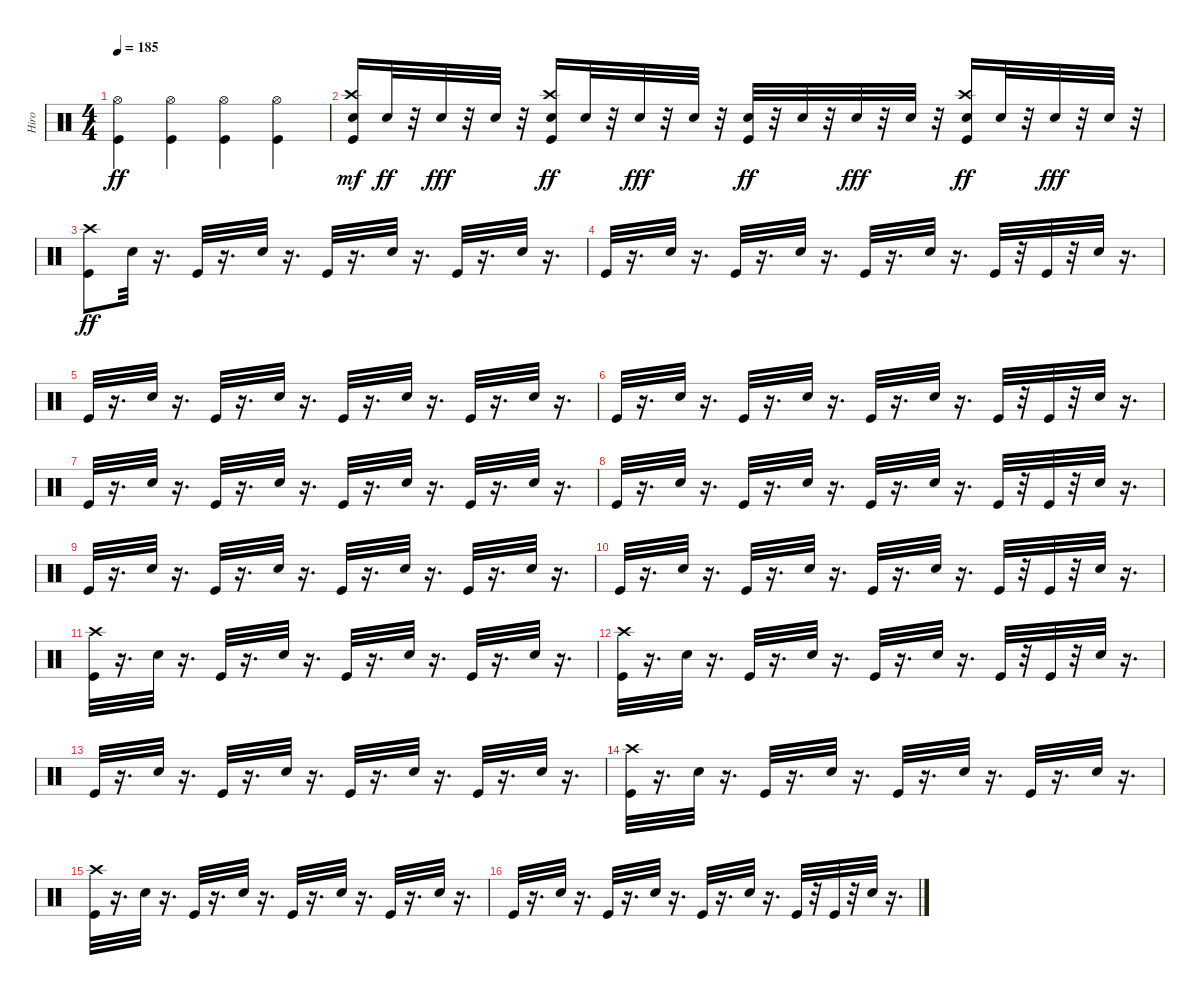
\track ("Hiro" "Hiro") {instrument percussion}
\staff {score}
\articulation defaults
\ts (4 4)
\tempo 185
\clef neutral
\ks c
("Hi-Hat (open)" "Kick (hit)").4{dy ff} ("Hi-Hat (open)" "Kick (hit)").4 ("Hi-Hat (open)" "Kick (hit)").4 ("Hi-Hat (open)" "Kick (hit)").4 |
("Crash high (hit)" "Kick (hit)" "Snare (hit) 2").16{dy mf} "Electric Snare (hit)".32{dy ff} r.32 "Snare (hit) 2".32{dy fff} r.32 "Snare (hit) 2".32 r.32 ("Crash high (hit)" "Electric Snare (hit)" "Kick (hit)").16{dy ff} "Electric Snare (hit)".32 r.32 "Snare (hit) 2".32{dy fff} r.32 "Snare (hit) 2".32 r.32 ("Snare (hit) 2" "Kick (hit)").32{dy ff} r.32 "Electric Snare (hit)".32 r.32 "Snare (hit) 2".32{dy fff} r.32 "Snare (hit) 2".32 r.32 ("Crash high (hit)" "Electric Snare (hit)" "Kick (hit)").16{dy ff} "Electric Snare (hit)".32 r.32 "Snare (hit) 2".32{dy fff} r.32 "Snare (hit) 2".32 r.32 |
("Crash high (hit)" "Kick (hit)").8{dy ff} "Electric Snare (hit)".32 r.16{d} "Kick (hit)".32 r.16{d} "Electric Snare (hit)".32 r.16{d} "Kick (hit)".32 r.16{d} "Electric Snare (hit)".32 r.16{d} "Kick (hit)".32 r.16{d} "Electric Snare (hit)".32 r.16{d} |
"Kick (hit)".32 r.16{d} "Electric Snare (hit)".32 r.16{d} "Kick (hit)".32 r.16{d} "Electric Snare (hit)".32 r.16{d} "Kick (hit)".32 r.16{d} "Electric Snare (hit)".32 r.16{d} "Kick (hit)".32 r.32 "Kick (hit)".32 r.32 "Electric Snare (hit)".32 r.16{d} |
"Kick (hit)".32 r.16{d} "Electric Snare (hit)".32 r.16{d} "Kick (hit)".32 r.16{d} "Electric Snare (hit)".32 r.16{d} "Kick (hit)".32 r.16{d} "Electric Snare (hit)".32 r.16{d} "Kick (hit)".32 r.16{d} "Electric Snare (hit)".32 r.16{d} |
"Kick (hit)".32 r.16{d} "Electric Snare (hit)".32 r.16{d} "Kick (hit)".32 r.16{d} "Electric Snare (hit)".32 r.16{d} "Kick (hit)".32 r.16{d} "Electric Snare (hit)".32 r.16{d} "Kick (hit)".32 r.32 "Kick (hit)".32 r.32 "Electric Snare (hit)".32 r.16{d} |
"Kick (hit)".32 r.16{d} "Electric Snare (hit)".32 r.16{d} "Kick (hit)".32 r.16{d} "Electric Snare (hit)".32 r.16{d} "Kick (hit)".32 r.16{d} "Electric Snare (hit)".32 r.16{d} "Kick (hit)".32 r.16{d} "Electric Snare (hit)".32 r.16{d} |
"Kick (hit)".32 r.16{d} "Electric Snare (hit)".32 r.16{d} "Kick (hit)".32 r.16{d} "Electric Snare (hit)".32 r.16{d} "Kick (hit)".32 r.16{d} "Electric Snare (hit)".32 r.16{d} "Kick (hit)".32 r.32 "Kick (hit)".32 r.32 "Electric Snare (hit)".32 r.16{d} |
"Kick (hit)".32 r.16{d} "Electric Snare (hit)".32 r.16{d} "Kick (hit)".32 r.16{d} "Electric Snare (hit)".32 r.16{d} "Kick (hit)".32 r.16{d} "Electric Snare (hit)".32 r.16{d} "Kick (hit)".32 r.16{d} "Electric Snare (hit)".32 r.16{d} |
"Kick (hit)".32 r.16{d} "Electric Snare (hit)".32 r.16{d} "Kick (hit)".32 r.16{d} "Electric Snare (hit)".32 r.16{d} "Kick (hit)".32 r.16{d} "Electric Snare (hit)".32 r.16{d} "Kick (hit)".32 r.32 "Kick (hit)".32 r.32 "Electric Snare (hit)".32 r.16{d} |
("Crash high (hit)" "Kick (hit)").32 r.16{d} "Electric Snare (hit)".32 r.16{d} "Kick (hit)".32 r.16{d} "Electric Snare (hit)".32 r.16{d} "Kick (hit)".32 r.16{d} "Electric Snare (hit)".32 r.16{d} "Kick (hit)".32 r.16{d} "Electric Snare (hit)".32 r.16{d} |
("Crash high (hit)" "Kick (hit)").32 r.16{d} "Electric Snare (hit)".32 r.16{d} "Kick (hit)".32 r.16{d} "Electric Snare (hit)".32 r.16{d} "Kick (hit)".32 r.16{d} "Electric Snare (hit)".32 r.16{d} "Kick (hit)".32 r.32 "Kick (hit)".32 r.32 "Electric Snare (hit)".32 r.16{d} |
"Kick (hit)".32 r.16{d} "Electric Snare (hit)".32 r.16{d} "Kick (hit)".32 r.16{d} "Electric Snare (hit)".32 r.16{d} "Kick (hit)".32 r.16{d} "Electric Snare (hit)".32 r.16{d} "Kick (hit)".32 r.16{d} "Electric Snare (hit)".32 r.16{d} |
("Crash high (hit)" "Kick (hit)").32 r.16{d} "Electric Snare (hit)".32 r.16{d} "Kick (hit)".32 r.16{d} "Electric Snare (hit)".32 r.16{d} "Kick (hit)".32 r.16{d} "Electric Snare (hit)".32 r.16{d} "Kick (hit)".32 r.16{d} "Electric Snare (hit)".32 r.16{d} |
("Crash high (hit)" "Kick (hit)").32 r.16{d} "Electric Snare (hit)".32 r.16{d} "Kick (hit)".32 r.16{d} "Electric Snare (hit)".32 r.16{d} "Kick (hit)".32 r.16{d} "Electric Snare (hit)".32 r.16{d} "Kick (hit)".32 r.16{d} "Electric Snare (hit)".32 r.16{d} |
"Kick (hit)".32 r.16{d} "Electric Snare (hit)".32 r.16{d} "Kick (hit)".32 r.16{d} "Electric Snare (hit)".32 r.16{d} "Kick (hit)".32 r.16{d} "Electric Snare (hit)".32 r.16{d} "Kick (hit)".32 r.32 "Kick (hit)".32 r.32 "Electric Snare (hit)".32 r.16{d}
